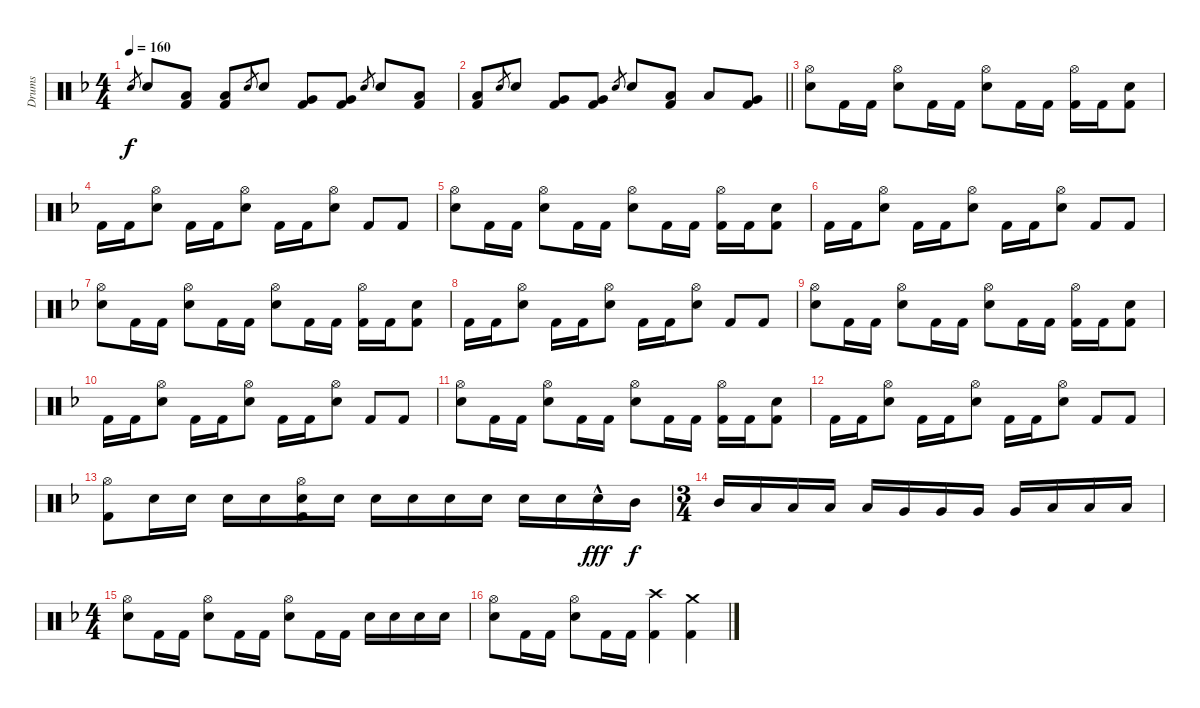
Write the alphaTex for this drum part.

\track ("Drums" "Drums") {instrument percussion}
\staff {score}
\articulation defaults
\ts (4 4)
\tempo 160
\clef neutral
\ks f "Electric Snare (hit)".8{gr dy f} "Electric Snare (hit)".8
("Low Tom (hit)" "Kick (hit) 2").8 ("Low Tom (hit)" "Kick (hit) 2").8 "Electric Snare (hit)".8{gr} "Electric Snare (hit)".8 ("Very Low Tom (hit)" "Kick (hit) 2").8 ("Very Low Tom (hit)" "Kick (hit) 2").8 "Electric Snare (hit)".8{gr} "Electric Snare (hit)".8 ("Low Floor Tom (hit)" "Kick (hit) 2").8 |
\barLineRight lightlight
("Low Floor Tom (hit)" "Kick (hit) 2").8 "Electric Snare (hit)".8{gr} "Electric Snare (hit)".8 ("Very Low Tom (hit)" "Kick (hit) 2").8 ("Very Low Tom (hit)" "Kick (hit) 2").8 "Electric Snare (hit)".8{gr} "Electric Snare (hit)".8 ("Low Tom (hit)" "Kick (hit) 2").8 "Low Tom (hit)".8 ("Very Low Tom (hit)" "Kick (hit) 2").8 |
("Hi-Hat (open)" "Electric Snare (hit)").8 "Kick (hit) 2".16 "Kick (hit) 2".16 ("Hi-Hat (open)" "Electric Snare (hit)").8 "Kick (hit) 2".16 "Kick (hit) 2".16 ("Hi-Hat (open)" "Electric Snare (hit)").8 "Kick (hit) 2".16 "Kick (hit) 2".16 ("Hi-Hat (open)" "Kick (hit) 2").16 "Kick (hit) 2".16 ("Electric Snare (hit)" "Kick (hit) 2").8 |
"Kick (hit) 2".16 "Kick (hit) 2".16 ("Hi-Hat (open)" "Electric Snare (hit)").8 "Kick (hit) 2".16 "Kick (hit) 2".16 ("Hi-Hat (open)" "Electric Snare (hit)").8 "Kick (hit) 2".16 "Kick (hit) 2".16 ("Hi-Hat (open)" "Electric Snare (hit)").8 "Kick (hit) 2".8 "Kick (hit) 2".8 |
("Hi-Hat (open)" "Electric Snare (hit)").8 "Kick (hit) 2".16 "Kick (hit) 2".16 ("Hi-Hat (open)" "Electric Snare (hit)").8 "Kick (hit) 2".16 "Kick (hit) 2".16 ("Hi-Hat (open)" "Electric Snare (hit)").8 "Kick (hit) 2".16 "Kick (hit) 2".16 ("Hi-Hat (open)" "Kick (hit) 2").16 "Kick (hit) 2".16 ("Electric Snare (hit)" "Kick (hit) 2").8 |
"Kick (hit) 2".16 "Kick (hit) 2".16 ("Hi-Hat (open)" "Electric Snare (hit)").8 "Kick (hit) 2".16 "Kick (hit) 2".16 ("Hi-Hat (open)" "Electric Snare (hit)").8 "Kick (hit) 2".16 "Kick (hit) 2".16 ("Hi-Hat (open)" "Electric Snare (hit)").8 "Kick (hit) 2".8 "Kick (hit) 2".8 |
("Hi-Hat (open)" "Electric Snare (hit)").8 "Kick (hit) 2".16 "Kick (hit) 2".16 ("Hi-Hat (open)" "Electric Snare (hit)").8 "Kick (hit) 2".16 "Kick (hit) 2".16 ("Hi-Hat (open)" "Electric Snare (hit)").8 "Kick (hit) 2".16 "Kick (hit) 2".16 ("Hi-Hat (open)" "Kick (hit) 2").16 "Kick (hit) 2".16 ("Electric Snare (hit)" "Kick (hit) 2").8 |
"Kick (hit) 2".16 "Kick (hit) 2".16 ("Hi-Hat (open)" "Electric Snare (hit)").8 "Kick (hit) 2".16 "Kick (hit) 2".16 ("Hi-Hat (open)" "Electric Snare (hit)").8 "Kick (hit) 2".16 "Kick (hit) 2".16 ("Hi-Hat (open)" "Electric Snare (hit)").8 "Kick (hit) 2".8 "Kick (hit) 2".8 |
("Hi-Hat (open)" "Electric Snare (hit)").8 "Kick (hit) 2".16 "Kick (hit) 2".16 ("Hi-Hat (open)" "Electric Snare (hit)").8 "Kick (hit) 2".16 "Kick (hit) 2".16 ("Hi-Hat (open)" "Electric Snare (hit)").8 "Kick (hit) 2".16 "Kick (hit) 2".16 ("Hi-Hat (open)" "Kick (hit) 2").16 "Kick (hit) 2".16 ("Electric Snare (hit)" "Kick (hit) 2").8 |
"Kick (hit) 2".16 "Kick (hit) 2".16 ("Hi-Hat (open)" "Electric Snare (hit)").8 "Kick (hit) 2".16 "Kick (hit) 2".16 ("Hi-Hat (open)" "Electric Snare (hit)").8 "Kick (hit) 2".16 "Kick (hit) 2".16 ("Hi-Hat (open)" "Electric Snare (hit)").8 "Kick (hit) 2".8 "Kick (hit) 2".8 |
("Hi-Hat (open)" "Electric Snare (hit)").8 "Kick (hit) 2".16 "Kick (hit) 2".16 ("Hi-Hat (open)" "Electric Snare (hit)").8 "Kick (hit) 2".16 "Kick (hit) 2".16 ("Hi-Hat (open)" "Electric Snare (hit)").8 "Kick (hit) 2".16 "Kick (hit) 2".16 ("Hi-Hat (open)" "Kick (hit) 2").16 "Kick (hit) 2".16 ("Electric Snare (hit)" "Kick (hit) 2").8 |
"Kick (hit) 2".16 "Kick (hit) 2".16 ("Hi-Hat (open)" "Electric Snare (hit)").8 "Kick (hit) 2".16 "Kick (hit) 2".16 ("Hi-Hat (open)" "Electric Snare (hit)").8 "Kick (hit) 2".16 "Kick (hit) 2".16 ("Hi-Hat (open)" "Electric Snare (hit)").8 "Kick (hit) 2".8 "Kick (hit) 2".8 |
("Hi-Hat (open)" "Kick (hit) 2").8 "Electric Snare (hit)".16 "Electric Snare (hit)".16 "Electric Snare (hit)".16 "Electric Snare (hit)".16 ("Hi-Hat (open)" "Electric Snare (hit)" "Kick (hit) 2").16 "Electric Snare (hit)".16 "Electric Snare (hit)".16 "Electric Snare (hit)".16 "Electric Snare (hit)".16 "Electric Snare (hit)".16 "Electric Snare (hit)".16 "Electric Snare (hit)".16 "Electric Snare (hit)"{hac}.16{dy fff} "Mid Tom (hit)".16{dy f} |
\ts (3 4)
"Mid Tom (hit)".16 "Low Tom (hit)".16 "Low Tom (hit)".16 "Low Tom (hit)".16 "Low Tom (hit)".16 "Very Low Tom (hit)".16 "Very Low Tom (hit)".16 "Very Low Tom (hit)".16 "Very Low Tom (hit)".16 "Low Floor Tom (hit)".16 "Low Floor Tom (hit)".16 "Low Floor Tom (hit)".16 |
\ts (4 4)
("Hi-Hat (open)" "Electric Snare (hit)").8 "Kick (hit) 2".16 "Kick (hit) 2".16 ("Hi-Hat (open)" "Electric Snare (hit)").8 "Kick (hit) 2".16 "Kick (hit) 2".16 ("Hi-Hat (open)" "Electric Snare (hit)").8 "Kick (hit) 2".16 "Kick (hit) 2".16 "Electric Snare (hit)".16 "Electric Snare (hit)".16 "Electric Snare (hit)".16 "Electric Snare (hit)".16 |
("Hi-Hat (open)" "Electric Snare (hit)").8 "Kick (hit) 2".16 "Kick (hit) 2".16 ("Hi-Hat (open)" "Electric Snare (hit)").8 "Kick (hit) 2".16 "Kick (hit) 2".16 ("Crash high (hit)" "Kick (hit) 2").4 ("Crash medium (hit)" "Kick (hit) 2").4
